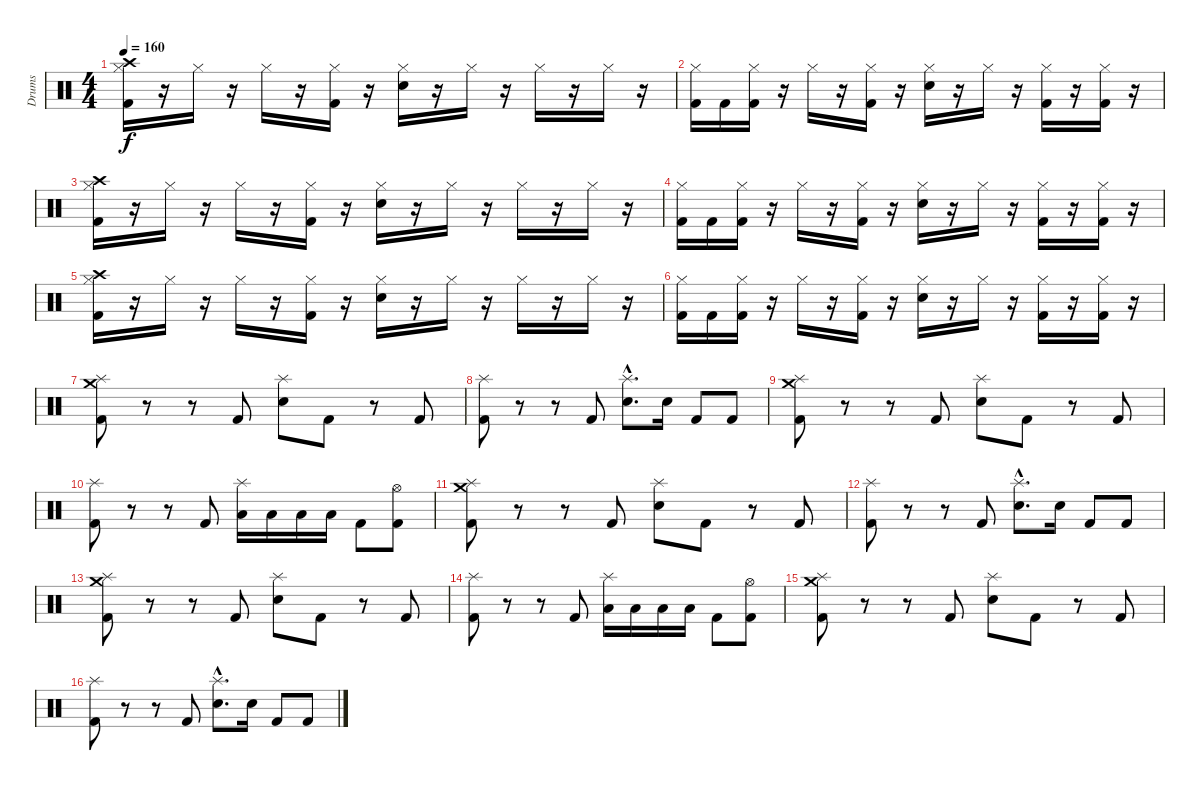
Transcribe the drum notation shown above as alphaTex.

\track ("Drums" "Drums") {instrument percussion}
\staff {score}
\articulation defaults
\ts (4 4)
\tempo 160
\clef neutral
\ks c
("Hi-Hat (closed)" "Crash high (hit)" "Kick (hit) 2").16{dy f} r.16 "Hi-Hat (closed)".16 r.16 "Hi-Hat (closed)".16 r.16 ("Hi-Hat (closed)" "Kick (hit) 2").16 r.16 ("Hi-Hat (closed)" "Electric Snare (hit)").16 r.16 "Hi-Hat (closed)".16 r.16 "Hi-Hat (closed)".16 r.16 "Hi-Hat (closed)".16 r.16 |
("Hi-Hat (closed)" "Kick (hit) 2").16 "Kick (hit) 2".16 ("Hi-Hat (closed)" "Kick (hit) 2").16 r.16 "Hi-Hat (closed)".16 r.16 ("Hi-Hat (closed)" "Kick (hit) 2").16 r.16 ("Hi-Hat (closed)" "Electric Snare (hit)").16 r.16 "Hi-Hat (closed)".16 r.16 ("Hi-Hat (closed)" "Kick (hit) 2").16 r.16 ("Hi-Hat (closed)" "Kick (hit) 2").16 r.16 |
("Hi-Hat (closed)" "Crash high (hit)" "Kick (hit) 2").16 r.16 "Hi-Hat (closed)".16 r.16 "Hi-Hat (closed)".16 r.16 ("Hi-Hat (closed)" "Kick (hit) 2").16 r.16 ("Hi-Hat (closed)" "Electric Snare (hit)").16 r.16 "Hi-Hat (closed)".16 r.16 "Hi-Hat (closed)".16 r.16 "Hi-Hat (closed)".16 r.16 |
("Hi-Hat (closed)" "Kick (hit) 2").16 "Kick (hit) 2".16 ("Hi-Hat (closed)" "Kick (hit) 2").16 r.16 "Hi-Hat (closed)".16 r.16 ("Hi-Hat (closed)" "Kick (hit) 2").16 r.16 ("Hi-Hat (closed)" "Electric Snare (hit)").16 r.16 "Hi-Hat (closed)".16 r.16 ("Hi-Hat (closed)" "Kick (hit) 2").16 r.16 ("Hi-Hat (closed)" "Kick (hit) 2").16 r.16 |
("Hi-Hat (closed)" "Crash high (hit)" "Kick (hit) 2").16 r.16 "Hi-Hat (closed)".16 r.16 "Hi-Hat (closed)".16 r.16 ("Hi-Hat (closed)" "Kick (hit) 2").16 r.16 ("Hi-Hat (closed)" "Electric Snare (hit)").16 r.16 "Hi-Hat (closed)".16 r.16 "Hi-Hat (closed)".16 r.16 "Hi-Hat (closed)".16 r.16 |
("Hi-Hat (closed)" "Kick (hit) 2").16 "Kick (hit) 2".16 ("Hi-Hat (closed)" "Kick (hit) 2").16 r.16 "Hi-Hat (closed)".16 r.16 ("Hi-Hat (closed)" "Kick (hit) 2").16 r.16 ("Hi-Hat (closed)" "Electric Snare (hit)").16 r.16 "Hi-Hat (closed)".16 r.16 ("Hi-Hat (closed)" "Kick (hit) 2").16 r.16 ("Hi-Hat (closed)" "Kick (hit) 2").16 r.16 |
("Splash (hit)" "Crash medium (hit)" "Kick (hit) 2").8 r.8 r.8 "Kick (hit) 2".8 ("Splash (hit)" "Electric Snare (hit)").8 "Kick (hit) 2".8 r.8 "Kick (hit) 2".8 |
("Splash (hit)" "Kick (hit) 2").8 r.8 r.8 "Kick (hit) 2".8 ("Splash (hit)"{hac} "Electric Snare (hit)"{hac}).8{d} "Electric Snare (hit)".16 "Kick (hit) 2".8 "Kick (hit) 2".8 |
("Splash (hit)" "Crash medium (hit)" "Kick (hit) 2").8 r.8 r.8 "Kick (hit) 2".8 ("Splash (hit)" "Electric Snare (hit)").8 "Kick (hit) 2".8 r.8 "Kick (hit) 2".8 |
("Splash (hit)" "Kick (hit) 2").8 r.8 r.8 "Kick (hit) 2".8 ("Splash (hit)" "Low Tom (hit)").16 "Low Tom (hit)".16 "Low Tom (hit)".16 "Low Tom (hit)".16 "Kick (hit) 2".8 ("Hi-Hat (open)" "Kick (hit) 2").8 |
("Splash (hit)" "Crash medium (hit)" "Kick (hit) 2").8 r.8 r.8 "Kick (hit) 2".8 ("Splash (hit)" "Electric Snare (hit)").8 "Kick (hit) 2".8 r.8 "Kick (hit) 2".8 |
("Splash (hit)" "Kick (hit) 2").8 r.8 r.8 "Kick (hit) 2".8 ("Splash (hit)"{hac} "Electric Snare (hit)"{hac}).8{d} "Electric Snare (hit)".16 "Kick (hit) 2".8 "Kick (hit) 2".8 |
("Splash (hit)" "Crash medium (hit)" "Kick (hit) 2").8 r.8 r.8 "Kick (hit) 2".8 ("Splash (hit)" "Electric Snare (hit)").8 "Kick (hit) 2".8 r.8 "Kick (hit) 2".8 |
("Splash (hit)" "Kick (hit) 2").8 r.8 r.8 "Kick (hit) 2".8 ("Splash (hit)" "Low Tom (hit)").16 "Low Tom (hit)".16 "Low Tom (hit)".16 "Low Tom (hit)".16 "Kick (hit) 2".8 ("Hi-Hat (open)" "Kick (hit) 2").8 |
("Splash (hit)" "Crash medium (hit)" "Kick (hit) 2").8 r.8 r.8 "Kick (hit) 2".8 ("Splash (hit)" "Electric Snare (hit)").8 "Kick (hit) 2".8 r.8 "Kick (hit) 2".8 |
("Splash (hit)" "Kick (hit) 2").8 r.8 r.8 "Kick (hit) 2".8 ("Splash (hit)"{hac} "Electric Snare (hit)"{hac}).8{d} "Electric Snare (hit)".16 "Kick (hit) 2".8 "Kick (hit) 2".8
